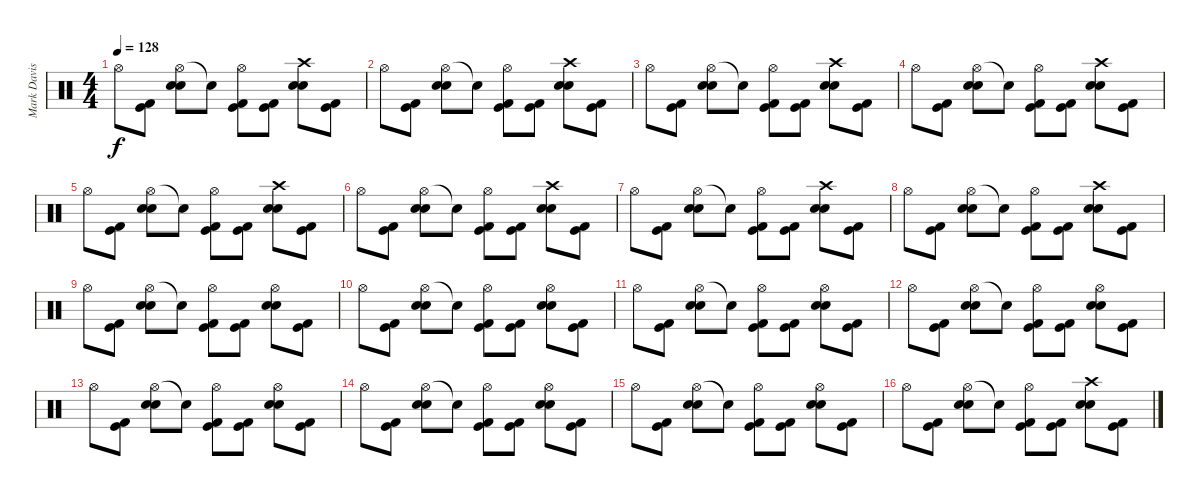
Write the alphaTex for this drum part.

\track ("Mark Davis (drums)" "Mark Davis") {instrument percussion}
\staff {score}
\articulation defaults
\ts (4 4)
\tempo 128
\clef neutral
\ks c "Hi-Hat (open)".8{dy f}
("Kick (hit)" "Kick (hit) 2").8 ("Hi-Hat (open)" "Snare (hit) 2" "Electric Snare (hit)").8 "Snare (hit)"{t}.8 ("Hi-Hat (open)" "Kick (hit)" "Kick (hit) 2").8 ("Kick (hit)" "Kick (hit) 2").8 ("Crash high (hit)" "Snare (hit) 2" "Electric Snare (hit)").8 ("Kick (hit)" "Kick (hit) 2").8 |
"Hi-Hat (open)".8 ("Kick (hit)" "Kick (hit) 2").8 ("Hi-Hat (open)" "Snare (hit) 2" "Electric Snare (hit)").8 "Snare (hit)"{t}.8 ("Hi-Hat (open)" "Kick (hit)" "Kick (hit) 2").8 ("Kick (hit)" "Kick (hit) 2").8 ("Crash high (hit)" "Snare (hit) 2" "Electric Snare (hit)").8 ("Kick (hit)" "Kick (hit) 2").8 |
"Hi-Hat (open)".8 ("Kick (hit)" "Kick (hit) 2").8 ("Hi-Hat (open)" "Snare (hit) 2" "Electric Snare (hit)").8 "Snare (hit)"{t}.8 ("Hi-Hat (open)" "Kick (hit)" "Kick (hit) 2").8 ("Kick (hit)" "Kick (hit) 2").8 ("Crash high (hit)" "Snare (hit) 2" "Electric Snare (hit)").8 ("Kick (hit)" "Kick (hit) 2").8 |
"Hi-Hat (open)".8 ("Kick (hit)" "Kick (hit) 2").8 ("Hi-Hat (open)" "Snare (hit) 2" "Electric Snare (hit)").8 "Snare (hit)"{t}.8 ("Hi-Hat (open)" "Kick (hit)" "Kick (hit) 2").8 ("Kick (hit)" "Kick (hit) 2").8 ("Crash high (hit)" "Snare (hit) 2" "Electric Snare (hit)").8 ("Kick (hit)" "Kick (hit) 2").8 |
"Hi-Hat (open)".8 ("Kick (hit)" "Kick (hit) 2").8 ("Hi-Hat (open)" "Snare (hit) 2" "Electric Snare (hit)").8 "Snare (hit)"{t}.8 ("Hi-Hat (open)" "Kick (hit)" "Kick (hit) 2").8 ("Kick (hit)" "Kick (hit) 2").8 ("Crash high (hit)" "Snare (hit) 2" "Electric Snare (hit)").8 ("Kick (hit)" "Kick (hit) 2").8 |
"Hi-Hat (open)".8 ("Kick (hit)" "Kick (hit) 2").8 ("Hi-Hat (open)" "Snare (hit) 2" "Electric Snare (hit)").8 "Snare (hit)"{t}.8 ("Hi-Hat (open)" "Kick (hit)" "Kick (hit) 2").8 ("Kick (hit)" "Kick (hit) 2").8 ("Crash high (hit)" "Snare (hit) 2" "Electric Snare (hit)").8 ("Kick (hit)" "Kick (hit) 2").8 |
"Hi-Hat (open)".8 ("Kick (hit)" "Kick (hit) 2").8 ("Hi-Hat (open)" "Snare (hit) 2" "Electric Snare (hit)").8 "Snare (hit)"{t}.8 ("Hi-Hat (open)" "Kick (hit)" "Kick (hit) 2").8 ("Kick (hit)" "Kick (hit) 2").8 ("Crash high (hit)" "Snare (hit) 2" "Electric Snare (hit)").8 ("Kick (hit)" "Kick (hit) 2").8 |
"Hi-Hat (open)".8 ("Kick (hit)" "Kick (hit) 2").8 ("Hi-Hat (open)" "Snare (hit) 2" "Electric Snare (hit)").8 "Snare (hit)"{t}.8 ("Hi-Hat (open)" "Kick (hit)" "Kick (hit) 2").8 ("Kick (hit)" "Kick (hit) 2").8 ("Crash high (hit)" "Snare (hit) 2" "Electric Snare (hit)").8 ("Kick (hit)" "Kick (hit) 2").8 |
"Hi-Hat (open)".8 ("Kick (hit)" "Kick (hit) 2").8 ("Hi-Hat (open)" "Snare (hit) 2" "Electric Snare (hit)").8 "Snare (hit)"{t}.8 ("Hi-Hat (open)" "Kick (hit)" "Kick (hit) 2").8 ("Kick (hit)" "Kick (hit) 2").8 ("Hi-Hat (open)" "Snare (hit) 2" "Electric Snare (hit)").8 ("Kick (hit)" "Kick (hit) 2").8 |
"Hi-Hat (open)".8 ("Kick (hit)" "Kick (hit) 2").8 ("Hi-Hat (open)" "Snare (hit) 2" "Electric Snare (hit)").8 "Snare (hit)"{t}.8 ("Hi-Hat (open)" "Kick (hit)" "Kick (hit) 2").8 ("Kick (hit)" "Kick (hit) 2").8 ("Hi-Hat (open)" "Snare (hit) 2" "Electric Snare (hit)").8 ("Kick (hit)" "Kick (hit) 2").8 |
"Hi-Hat (open)".8 ("Kick (hit)" "Kick (hit) 2").8 ("Hi-Hat (open)" "Snare (hit) 2" "Electric Snare (hit)").8 "Snare (hit)"{t}.8 ("Hi-Hat (open)" "Kick (hit)" "Kick (hit) 2").8 ("Kick (hit)" "Kick (hit) 2").8 ("Hi-Hat (open)" "Snare (hit) 2" "Electric Snare (hit)").8 ("Kick (hit)" "Kick (hit) 2").8 |
"Hi-Hat (open)".8 ("Kick (hit)" "Kick (hit) 2").8 ("Hi-Hat (open)" "Snare (hit) 2" "Electric Snare (hit)").8 "Snare (hit)"{t}.8 ("Hi-Hat (open)" "Kick (hit)" "Kick (hit) 2").8 ("Kick (hit)" "Kick (hit) 2").8 ("Hi-Hat (open)" "Snare (hit) 2" "Electric Snare (hit)").8 ("Kick (hit)" "Kick (hit) 2").8 |
"Hi-Hat (open)".8 ("Kick (hit)" "Kick (hit) 2").8 ("Hi-Hat (open)" "Snare (hit) 2" "Electric Snare (hit)").8 "Snare (hit)"{t}.8 ("Hi-Hat (open)" "Kick (hit)" "Kick (hit) 2").8 ("Kick (hit)" "Kick (hit) 2").8 ("Hi-Hat (open)" "Snare (hit) 2" "Electric Snare (hit)").8 ("Kick (hit)" "Kick (hit) 2").8 |
"Hi-Hat (open)".8 ("Kick (hit)" "Kick (hit) 2").8 ("Hi-Hat (open)" "Snare (hit) 2" "Electric Snare (hit)").8 "Snare (hit)"{t}.8 ("Hi-Hat (open)" "Kick (hit)" "Kick (hit) 2").8 ("Kick (hit)" "Kick (hit) 2").8 ("Hi-Hat (open)" "Snare (hit) 2" "Electric Snare (hit)").8 ("Kick (hit)" "Kick (hit) 2").8 |
"Hi-Hat (open)".8 ("Kick (hit)" "Kick (hit) 2").8 ("Hi-Hat (open)" "Snare (hit) 2" "Electric Snare (hit)").8 "Snare (hit)"{t}.8 ("Hi-Hat (open)" "Kick (hit)" "Kick (hit) 2").8 ("Kick (hit)" "Kick (hit) 2").8 ("Hi-Hat (open)" "Snare (hit) 2" "Electric Snare (hit)").8 ("Kick (hit)" "Kick (hit) 2").8 |
"Hi-Hat (open)".8 ("Kick (hit)" "Kick (hit) 2").8 ("Hi-Hat (open)" "Snare (hit) 2" "Electric Snare (hit)").8 "Snare (hit)"{t}.8 ("Hi-Hat (open)" "Kick (hit)" "Kick (hit) 2").8 ("Kick (hit)" "Kick (hit) 2").8 ("Crash high (hit)" "Snare (hit) 2" "Electric Snare (hit)").8 ("Kick (hit)" "Kick (hit) 2").8
